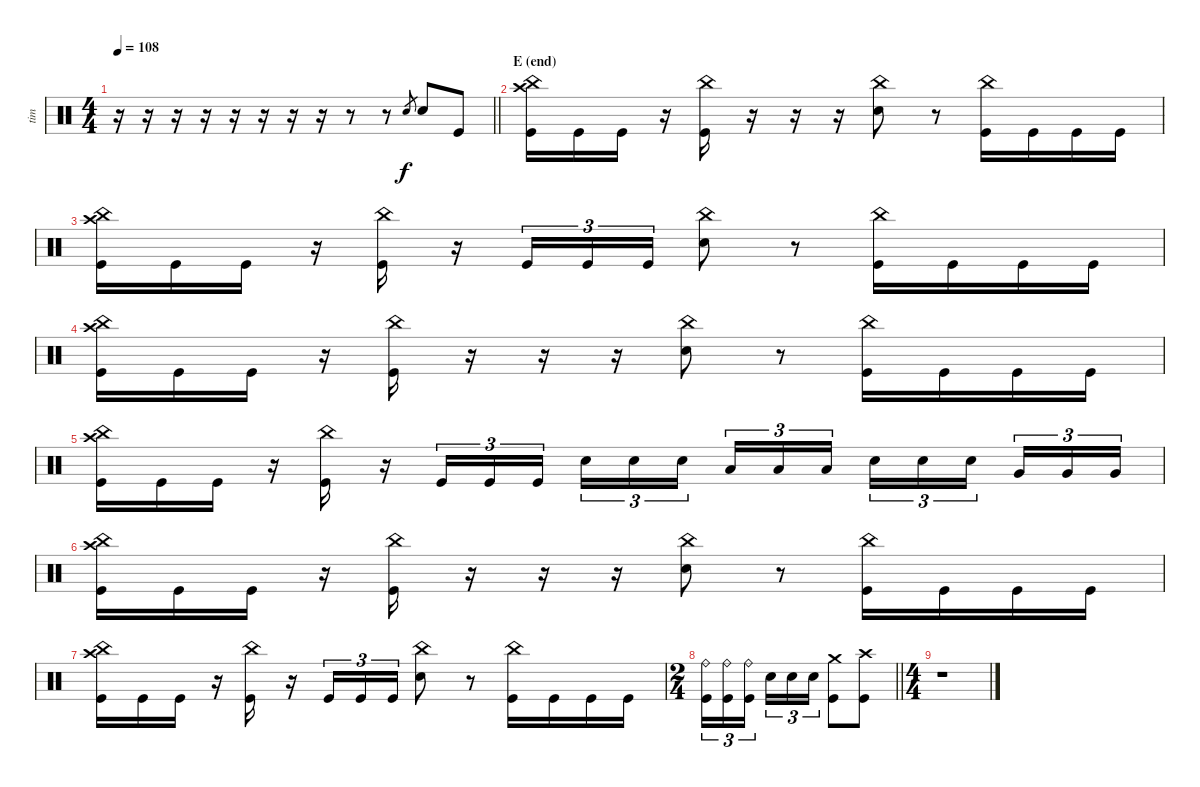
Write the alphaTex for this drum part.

\track ("tim" "tim") {instrument percussion}
\staff {score}
\articulation defaults
\ts (4 4)
\tempo 108
\clef neutral
\barLineRight lightlight
\ks c
r.16{dy f} r.16 r.16 r.16 r.16 r.16 r.16 r.16 r.8 r.8 "Snare (hit) 2".8{gr} "Snare (hit) 2".8 "Kick (hit)".8 |
\section ("" "E (end)")
("Crash high (hit)" "China (hit)" "Kick (hit)").16 "Kick (hit)".16 "Kick (hit)".16 r.16 ("China (hit)" "Kick (hit)").16 r.16 r.16 r.16 ("China (hit)" "Snare (hit) 2").8 r.8 ("China (hit)" "Kick (hit)").16 "Kick (hit)".16 "Kick (hit)".16 "Kick (hit)".16 |
("Crash high (hit)" "China (hit)" "Kick (hit)").16 "Kick (hit)".16 "Kick (hit)".16 r.16 ("China (hit)" "Kick (hit)").16 r.16 "Kick (hit)".16{tu (3 2)} "Kick (hit)".16{tu (3 2)} "Kick (hit)".16{tu (3 2)} ("China (hit)" "Snare (hit) 2").8 r.8 ("China (hit)" "Kick (hit)").16 "Kick (hit)".16 "Kick (hit)".16 "Kick (hit)".16 |
("Crash high (hit)" "China (hit)" "Kick (hit)").16 "Kick (hit)".16 "Kick (hit)".16 r.16 ("China (hit)" "Kick (hit)").16 r.16 r.16 r.16 ("China (hit)" "Snare (hit) 2").8 r.8 ("China (hit)" "Kick (hit)").16 "Kick (hit)".16 "Kick (hit)".16 "Kick (hit)".16 |
("Crash high (hit)" "China (hit)" "Kick (hit)").16 "Kick (hit)".16 "Kick (hit)".16 r.16 ("China (hit)" "Kick (hit)").16 r.16 "Kick (hit)".16{tu (3 2)} "Kick (hit)".16{tu (3 2)} "Kick (hit)".16{tu (3 2)} "Snare (hit) 2".16{tu (3 2)} "Snare (hit) 2".16{tu (3 2)} "Snare (hit) 2".16{tu (3 2) beam splitsecondary} "Low Tom (hit)".16{tu (3 2)} "Low Tom (hit)".16{tu (3 2)} "Low Tom (hit)".16{tu (3 2)} "Snare (hit) 2".16{tu (3 2)} "Snare (hit) 2".16{tu (3 2)} "Snare (hit) 2".16{tu (3 2) beam splitsecondary} "Very Low Tom (hit)".16{tu (3 2)} "Very Low Tom (hit)".16{tu (3 2)} "Very Low Tom (hit)".16{tu (3 2)} |
("Crash high (hit)" "China (hit)" "Kick (hit)").16 "Kick (hit)".16 "Kick (hit)".16 r.16 ("China (hit)" "Kick (hit)").16 r.16 r.16 r.16 ("China (hit)" "Snare (hit) 2").8 r.8 ("China (hit)" "Kick (hit)").16 "Kick (hit)".16 "Kick (hit)".16 "Kick (hit)".16 |
("Crash high (hit)" "China (hit)" "Kick (hit)").16 "Kick (hit)".16 "Kick (hit)".16 r.16 ("China (hit)" "Kick (hit)").16 r.16 "Kick (hit)".16{tu (3 2)} "Kick (hit)".16{tu (3 2)} "Kick (hit)".16{tu (3 2)} ("China (hit)" "Snare (hit) 2").8 r.8 ("China (hit)" "Kick (hit)").16 "Kick (hit)".16 "Kick (hit)".16 "Kick (hit)".16 |
\ts (2 4)
\barLineRight lightlight
("Ride (bell)" "Kick (hit)").16{tu (3 2)} ("Ride (bell)" "Kick (hit)").16{tu (3 2)} ("Ride (bell)" "Kick (hit)").16{tu (3 2) beam splitsecondary} "Snare (hit) 2".16{tu (3 2)} "Snare (hit) 2".16{tu (3 2)} "Snare (hit) 2".16{tu (3 2)} ("Crash medium (hit)" "Kick (hit)").8 ("Crash high (hit)" "Kick (hit)").8 |
\ts (4 4)
r.1
